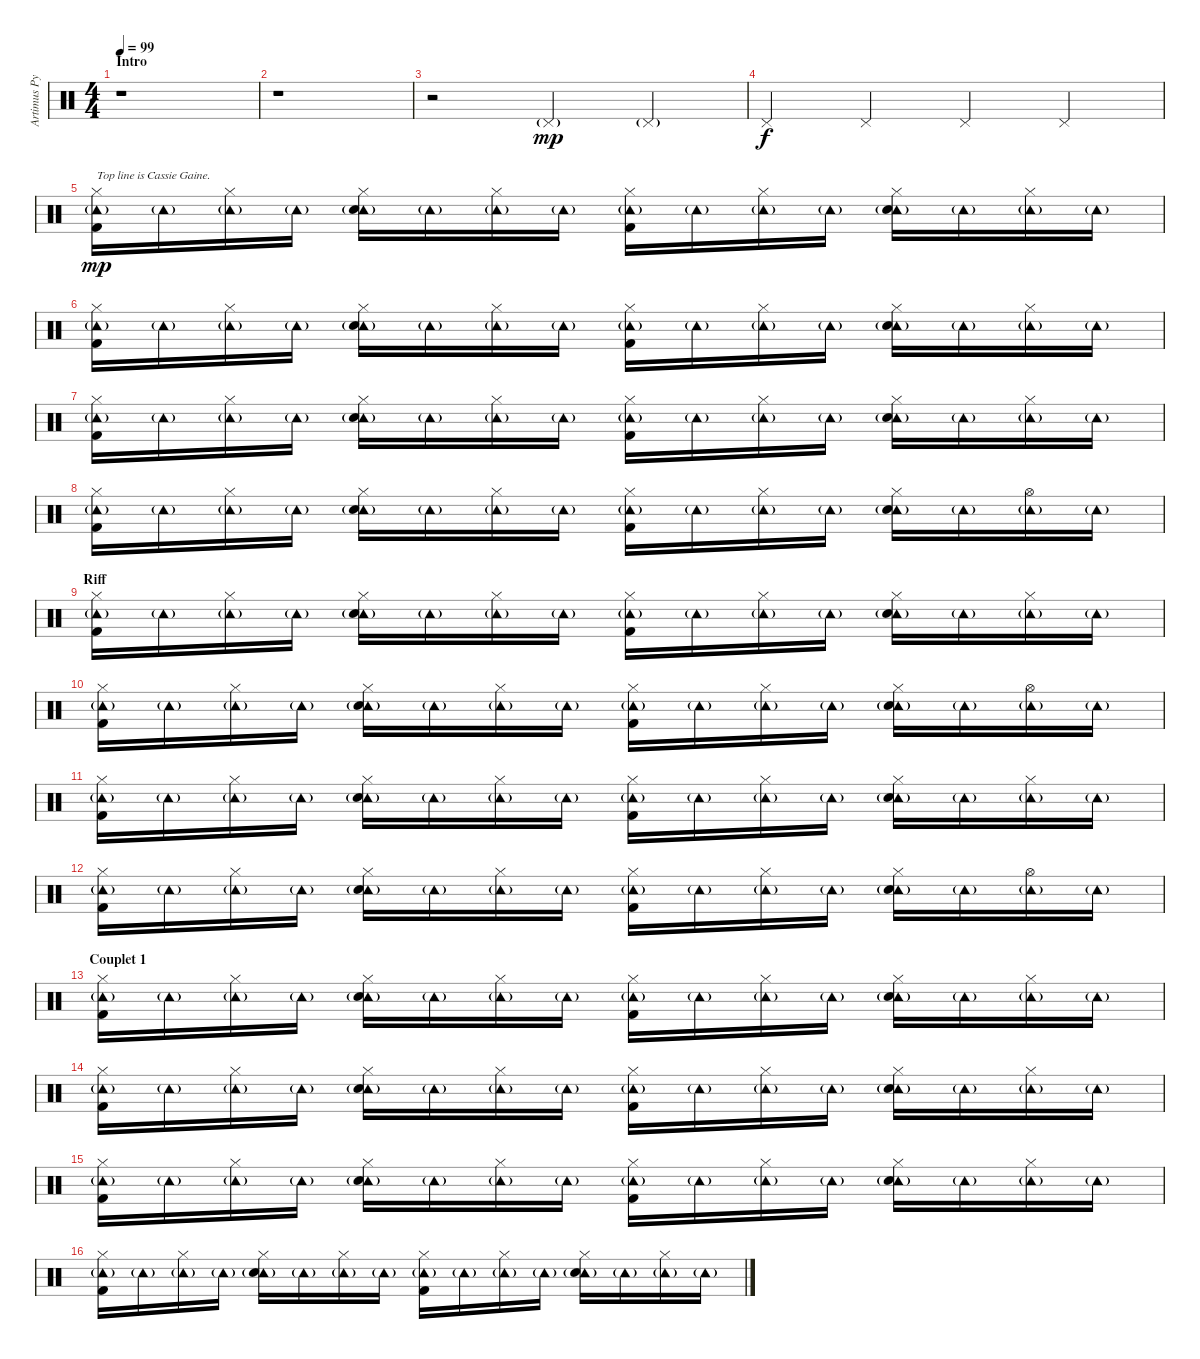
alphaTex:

\track ("Artimus Pyle (drums)" "Artimus Py") {instrument percussion}
\staff {score}
\articulation defaults
\ts (4 4)
\section ("" "Intro")
\tempo 99
\clef neutral
\ks c
r.1{dy mp} |
r.1 |
r.2 "Pedal Hi-Hat (hit)"{g}.4 "Pedal Hi-Hat (hit)"{g}.4 |
"Pedal Hi-Hat (hit)".4{dy f} "Pedal Hi-Hat (hit)".4 "Pedal Hi-Hat (hit)".4 "Pedal Hi-Hat (hit)".4 |
("Tambourine (hit)"{g} "Hi-Hat (closed)" "Kick (hit) 2").16{txt "Top line is Cassie Gaine." dy mp} "Tambourine (hit)"{g}.16 ("Tambourine (hit)"{g} "Hi-Hat (closed)").16 "Tambourine (hit)"{g}.16 ("Tambourine (hit)"{g} "Hi-Hat (closed)" "Electric Snare (hit)").16 "Tambourine (hit)"{g}.16 ("Tambourine (hit)"{g} "Hi-Hat (closed)").16 "Tambourine (hit)"{g}.16 ("Tambourine (hit)"{g} "Hi-Hat (closed)" "Kick (hit) 2").16 "Tambourine (hit)"{g}.16 ("Tambourine (hit)"{g} "Hi-Hat (closed)").16 "Tambourine (hit)"{g}.16 ("Tambourine (hit)"{g} "Hi-Hat (closed)" "Electric Snare (hit)").16 "Tambourine (hit)"{g}.16 ("Tambourine (hit)"{g} "Hi-Hat (closed)").16 "Tambourine (hit)"{g}.16 |
("Tambourine (hit)"{g} "Hi-Hat (closed)" "Kick (hit) 2").16 "Tambourine (hit)"{g}.16 ("Tambourine (hit)"{g} "Hi-Hat (closed)").16 "Tambourine (hit)"{g}.16 ("Tambourine (hit)"{g} "Hi-Hat (closed)" "Electric Snare (hit)").16 "Tambourine (hit)"{g}.16 ("Tambourine (hit)"{g} "Hi-Hat (closed)").16 "Tambourine (hit)"{g}.16 ("Tambourine (hit)"{g} "Hi-Hat (closed)" "Kick (hit) 2").16 "Tambourine (hit)"{g}.16 ("Tambourine (hit)"{g} "Hi-Hat (closed)").16 "Tambourine (hit)"{g}.16 ("Tambourine (hit)"{g} "Hi-Hat (closed)" "Electric Snare (hit)").16 "Tambourine (hit)"{g}.16 ("Tambourine (hit)"{g} "Hi-Hat (closed)").16 "Tambourine (hit)"{g}.16 |
("Tambourine (hit)"{g} "Hi-Hat (closed)" "Kick (hit) 2").16 "Tambourine (hit)"{g}.16 ("Tambourine (hit)"{g} "Hi-Hat (closed)").16 "Tambourine (hit)"{g}.16 ("Tambourine (hit)"{g} "Hi-Hat (closed)" "Electric Snare (hit)").16 "Tambourine (hit)"{g}.16 ("Tambourine (hit)"{g} "Hi-Hat (closed)").16 "Tambourine (hit)"{g}.16 ("Tambourine (hit)"{g} "Hi-Hat (closed)" "Kick (hit) 2").16 "Tambourine (hit)"{g}.16 ("Tambourine (hit)"{g} "Hi-Hat (closed)").16 "Tambourine (hit)"{g}.16 ("Tambourine (hit)"{g} "Hi-Hat (closed)" "Electric Snare (hit)").16 "Tambourine (hit)"{g}.16 ("Tambourine (hit)"{g} "Hi-Hat (closed)").16 "Tambourine (hit)"{g}.16 |
("Tambourine (hit)"{g} "Hi-Hat (closed)" "Kick (hit) 2").16 "Tambourine (hit)"{g}.16 ("Tambourine (hit)"{g} "Hi-Hat (closed)").16 "Tambourine (hit)"{g}.16 ("Tambourine (hit)"{g} "Hi-Hat (closed)" "Electric Snare (hit)").16 "Tambourine (hit)"{g}.16 ("Tambourine (hit)"{g} "Hi-Hat (closed)").16 "Tambourine (hit)"{g}.16 ("Tambourine (hit)"{g} "Hi-Hat (closed)" "Kick (hit) 2").16 "Tambourine (hit)"{g}.16 ("Tambourine (hit)"{g} "Hi-Hat (closed)").16 "Tambourine (hit)"{g}.16 ("Tambourine (hit)"{g} "Hi-Hat (closed)" "Electric Snare (hit)").16 "Tambourine (hit)"{g}.16 ("Tambourine (hit)"{g} "Hi-Hat (open)").16 "Tambourine (hit)"{g}.16 |
\section ("" "Riff")
("Tambourine (hit)"{g} "Hi-Hat (closed)" "Kick (hit) 2").16 "Tambourine (hit)"{g}.16 ("Tambourine (hit)"{g} "Hi-Hat (closed)").16 "Tambourine (hit)"{g}.16 ("Tambourine (hit)"{g} "Hi-Hat (closed)" "Electric Snare (hit)").16 "Tambourine (hit)"{g}.16 ("Tambourine (hit)"{g} "Hi-Hat (closed)").16 "Tambourine (hit)"{g}.16 ("Tambourine (hit)"{g} "Hi-Hat (closed)" "Kick (hit) 2").16 "Tambourine (hit)"{g}.16 ("Tambourine (hit)"{g} "Hi-Hat (closed)").16 "Tambourine (hit)"{g}.16 ("Tambourine (hit)"{g} "Hi-Hat (closed)" "Electric Snare (hit)").16 "Tambourine (hit)"{g}.16 ("Tambourine (hit)"{g} "Hi-Hat (closed)").16 "Tambourine (hit)"{g}.16 |
("Tambourine (hit)"{g} "Hi-Hat (closed)" "Kick (hit) 2").16 "Tambourine (hit)"{g}.16 ("Tambourine (hit)"{g} "Hi-Hat (closed)").16 "Tambourine (hit)"{g}.16 ("Tambourine (hit)"{g} "Hi-Hat (closed)" "Electric Snare (hit)").16 "Tambourine (hit)"{g}.16 ("Tambourine (hit)"{g} "Hi-Hat (closed)").16 "Tambourine (hit)"{g}.16 ("Tambourine (hit)"{g} "Hi-Hat (closed)" "Kick (hit) 2").16 "Tambourine (hit)"{g}.16 ("Tambourine (hit)"{g} "Hi-Hat (closed)").16 "Tambourine (hit)"{g}.16 ("Tambourine (hit)"{g} "Hi-Hat (closed)" "Electric Snare (hit)").16 "Tambourine (hit)"{g}.16 ("Tambourine (hit)"{g} "Hi-Hat (open)").16 "Tambourine (hit)"{g}.16 |
("Tambourine (hit)"{g} "Hi-Hat (closed)" "Kick (hit) 2").16 "Tambourine (hit)"{g}.16 ("Tambourine (hit)"{g} "Hi-Hat (closed)").16 "Tambourine (hit)"{g}.16 ("Tambourine (hit)"{g} "Hi-Hat (closed)" "Electric Snare (hit)").16 "Tambourine (hit)"{g}.16 ("Tambourine (hit)"{g} "Hi-Hat (closed)").16 "Tambourine (hit)"{g}.16 ("Tambourine (hit)"{g} "Hi-Hat (closed)" "Kick (hit) 2").16 "Tambourine (hit)"{g}.16 ("Tambourine (hit)"{g} "Hi-Hat (closed)").16 "Tambourine (hit)"{g}.16 ("Tambourine (hit)"{g} "Hi-Hat (closed)" "Electric Snare (hit)").16 "Tambourine (hit)"{g}.16 ("Tambourine (hit)"{g} "Hi-Hat (closed)").16 "Tambourine (hit)"{g}.16 |
("Tambourine (hit)"{g} "Hi-Hat (closed)" "Kick (hit) 2").16 "Tambourine (hit)"{g}.16 ("Tambourine (hit)"{g} "Hi-Hat (closed)").16 "Tambourine (hit)"{g}.16 ("Tambourine (hit)"{g} "Hi-Hat (closed)" "Electric Snare (hit)").16 "Tambourine (hit)"{g}.16 ("Tambourine (hit)"{g} "Hi-Hat (closed)").16 "Tambourine (hit)"{g}.16 ("Tambourine (hit)"{g} "Hi-Hat (closed)" "Kick (hit) 2").16 "Tambourine (hit)"{g}.16 ("Tambourine (hit)"{g} "Hi-Hat (closed)").16 "Tambourine (hit)"{g}.16 ("Tambourine (hit)"{g} "Hi-Hat (closed)" "Electric Snare (hit)").16 "Tambourine (hit)"{g}.16 ("Tambourine (hit)"{g} "Hi-Hat (open)").16 "Tambourine (hit)"{g}.16 |
\section ("" "Couplet 1")
("Tambourine (hit)"{g} "Hi-Hat (closed)" "Kick (hit) 2").16 "Tambourine (hit)"{g}.16 ("Tambourine (hit)"{g} "Hi-Hat (closed)").16 "Tambourine (hit)"{g}.16 ("Tambourine (hit)"{g} "Hi-Hat (closed)" "Electric Snare (hit)").16 "Tambourine (hit)"{g}.16 ("Tambourine (hit)"{g} "Hi-Hat (closed)").16 "Tambourine (hit)"{g}.16 ("Tambourine (hit)"{g} "Hi-Hat (closed)" "Kick (hit) 2").16 "Tambourine (hit)"{g}.16 ("Tambourine (hit)"{g} "Hi-Hat (closed)").16 "Tambourine (hit)"{g}.16 ("Tambourine (hit)"{g} "Hi-Hat (closed)" "Electric Snare (hit)").16 "Tambourine (hit)"{g}.16 ("Tambourine (hit)"{g} "Hi-Hat (closed)").16 "Tambourine (hit)"{g}.16 |
("Tambourine (hit)"{g} "Hi-Hat (closed)" "Kick (hit) 2").16 "Tambourine (hit)"{g}.16 ("Tambourine (hit)"{g} "Hi-Hat (closed)").16 "Tambourine (hit)"{g}.16 ("Tambourine (hit)"{g} "Hi-Hat (closed)" "Electric Snare (hit)").16 "Tambourine (hit)"{g}.16 ("Tambourine (hit)"{g} "Hi-Hat (closed)").16 "Tambourine (hit)"{g}.16 ("Tambourine (hit)"{g} "Hi-Hat (closed)" "Kick (hit) 2").16 "Tambourine (hit)"{g}.16 ("Tambourine (hit)"{g} "Hi-Hat (closed)").16 "Tambourine (hit)"{g}.16 ("Tambourine (hit)"{g} "Hi-Hat (closed)" "Electric Snare (hit)").16 "Tambourine (hit)"{g}.16 ("Tambourine (hit)"{g} "Hi-Hat (closed)").16 "Tambourine (hit)"{g}.16 |
("Tambourine (hit)"{g} "Hi-Hat (closed)" "Kick (hit) 2").16 "Tambourine (hit)"{g}.16 ("Tambourine (hit)"{g} "Hi-Hat (closed)").16 "Tambourine (hit)"{g}.16 ("Tambourine (hit)"{g} "Hi-Hat (closed)" "Electric Snare (hit)").16 "Tambourine (hit)"{g}.16 ("Tambourine (hit)"{g} "Hi-Hat (closed)").16 "Tambourine (hit)"{g}.16 ("Tambourine (hit)"{g} "Hi-Hat (closed)" "Kick (hit) 2").16 "Tambourine (hit)"{g}.16 ("Tambourine (hit)"{g} "Hi-Hat (closed)").16 "Tambourine (hit)"{g}.16 ("Tambourine (hit)"{g} "Hi-Hat (closed)" "Electric Snare (hit)").16 "Tambourine (hit)"{g}.16 ("Tambourine (hit)"{g} "Hi-Hat (closed)").16 "Tambourine (hit)"{g}.16 |
("Tambourine (hit)"{g} "Hi-Hat (closed)" "Kick (hit) 2").16 "Tambourine (hit)"{g}.16 ("Tambourine (hit)"{g} "Hi-Hat (closed)").16 "Tambourine (hit)"{g}.16 ("Tambourine (hit)"{g} "Hi-Hat (closed)" "Electric Snare (hit)").16 "Tambourine (hit)"{g}.16 ("Tambourine (hit)"{g} "Hi-Hat (closed)").16 "Tambourine (hit)"{g}.16 ("Tambourine (hit)"{g} "Hi-Hat (closed)" "Kick (hit) 2").16 "Tambourine (hit)"{g}.16 ("Tambourine (hit)"{g} "Hi-Hat (closed)").16 "Tambourine (hit)"{g}.16 ("Tambourine (hit)"{g} "Hi-Hat (closed)" "Electric Snare (hit)").16 "Tambourine (hit)"{g}.16 ("Tambourine (hit)"{g} "Hi-Hat (closed)").16 "Tambourine (hit)"{g}.16
